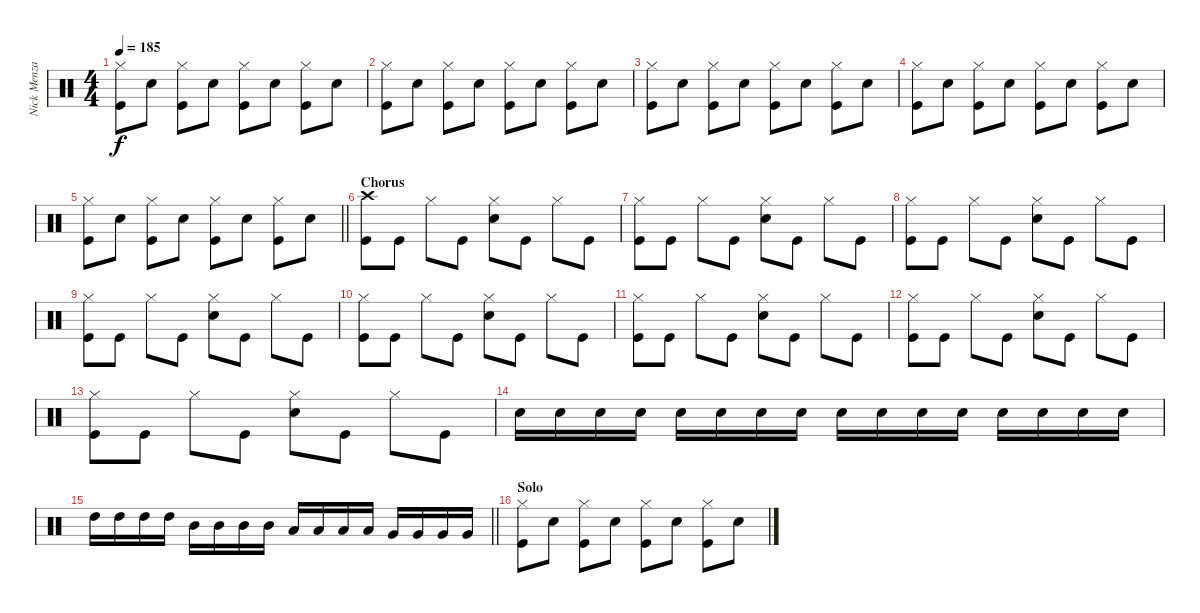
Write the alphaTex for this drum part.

\track ("Nick Menza" "Nick Menza") {instrument percussion}
\staff {score}
\articulation defaults
\ts (4 4)
\tempo 185
\clef neutral
\ks c
("Hi-Hat (closed)" "Kick (hit)").8{dy f} "Snare (hit) 2".8 ("Hi-Hat (closed)" "Kick (hit)").8 "Snare (hit) 2".8 ("Hi-Hat (closed)" "Kick (hit)").8 "Snare (hit) 2".8 ("Hi-Hat (closed)" "Kick (hit)").8 "Snare (hit) 2".8 |
("Hi-Hat (closed)" "Kick (hit)").8 "Snare (hit) 2".8 ("Hi-Hat (closed)" "Kick (hit)").8 "Snare (hit) 2".8 ("Hi-Hat (closed)" "Kick (hit)").8 "Snare (hit) 2".8 ("Hi-Hat (closed)" "Kick (hit)").8 "Snare (hit) 2".8 |
("Hi-Hat (closed)" "Kick (hit)").8 "Snare (hit) 2".8 ("Hi-Hat (closed)" "Kick (hit)").8 "Snare (hit) 2".8 ("Hi-Hat (closed)" "Kick (hit)").8 "Snare (hit) 2".8 ("Hi-Hat (closed)" "Kick (hit)").8 "Snare (hit) 2".8 |
("Hi-Hat (closed)" "Kick (hit)").8 "Snare (hit) 2".8 ("Hi-Hat (closed)" "Kick (hit)").8 "Snare (hit) 2".8 ("Hi-Hat (closed)" "Kick (hit)").8 "Snare (hit) 2".8 ("Hi-Hat (closed)" "Kick (hit)").8 "Snare (hit) 2".8 |
\barLineRight lightlight
("Hi-Hat (closed)" "Kick (hit)").8 "Snare (hit) 2".8 ("Hi-Hat (closed)" "Kick (hit)").8 "Snare (hit) 2".8 ("Hi-Hat (closed)" "Kick (hit)").8 "Snare (hit) 2".8 ("Hi-Hat (closed)" "Kick (hit)").8 "Snare (hit) 2".8 |
\section ("" "Chorus")
("Crash high (hit)" "Kick (hit)").8 "Kick (hit)".8 "Hi-Hat (closed)".8 "Kick (hit)".8 ("Hi-Hat (closed)" "Snare (hit) 2").8 "Kick (hit)".8 "Hi-Hat (closed)".8 "Kick (hit)".8 |
("Hi-Hat (closed)" "Kick (hit)").8 "Kick (hit)".8 "Hi-Hat (closed)".8 "Kick (hit)".8 ("Hi-Hat (closed)" "Snare (hit) 2").8 "Kick (hit)".8 "Hi-Hat (closed)".8 "Kick (hit)".8 |
("Hi-Hat (closed)" "Kick (hit)").8 "Kick (hit)".8 "Hi-Hat (closed)".8 "Kick (hit)".8 ("Hi-Hat (closed)" "Snare (hit) 2").8 "Kick (hit)".8 "Hi-Hat (closed)".8 "Kick (hit)".8 |
("Hi-Hat (closed)" "Kick (hit)").8 "Kick (hit)".8 "Hi-Hat (closed)".8 "Kick (hit)".8 ("Hi-Hat (closed)" "Snare (hit) 2").8 "Kick (hit)".8 "Hi-Hat (closed)".8 "Kick (hit)".8 |
("Hi-Hat (closed)" "Kick (hit)").8 "Kick (hit)".8 "Hi-Hat (closed)".8 "Kick (hit)".8 ("Hi-Hat (closed)" "Snare (hit) 2").8 "Kick (hit)".8 "Hi-Hat (closed)".8 "Kick (hit)".8 |
("Hi-Hat (closed)" "Kick (hit)").8 "Kick (hit)".8 "Hi-Hat (closed)".8 "Kick (hit)".8 ("Hi-Hat (closed)" "Snare (hit) 2").8 "Kick (hit)".8 "Hi-Hat (closed)".8 "Kick (hit)".8 |
("Hi-Hat (closed)" "Kick (hit)").8 "Kick (hit)".8 "Hi-Hat (closed)".8 "Kick (hit)".8 ("Hi-Hat (closed)" "Snare (hit) 2").8 "Kick (hit)".8 "Hi-Hat (closed)".8 "Kick (hit)".8 |
("Hi-Hat (closed)" "Kick (hit)").8 "Kick (hit)".8 "Hi-Hat (closed)".8 "Kick (hit)".8 ("Hi-Hat (closed)" "Snare (hit) 2").8 "Kick (hit)".8 "Hi-Hat (closed)".8 "Kick (hit)".8 |
"Snare (hit) 2".16 "Snare (hit) 2".16 "Snare (hit) 2".16 "Snare (hit) 2".16 "Snare (hit) 2".16 "Snare (hit) 2".16 "Snare (hit) 2".16 "Snare (hit) 2".16 "Snare (hit) 2".16 "Snare (hit) 2".16 "Snare (hit) 2".16 "Snare (hit) 2".16 "Snare (hit) 2".16 "Snare (hit) 2".16 "Snare (hit) 2".16 "Snare (hit) 2".16 |
\barLineRight lightlight "High Tom (hit)".16 "High Tom (hit)".16 "High Tom (hit)".16 "High Tom (hit)".16 "Mid Tom (hit)".16 "Mid Tom (hit)".16 "Mid Tom (hit)".16 "Mid Tom (hit)".16 "Low Tom (hit)".16 "Low Tom (hit)".16 "Low Tom (hit)".16 "Low Tom (hit)".16 "Very Low Tom (hit)".16 "Very Low Tom (hit)".16 "Very Low Tom (hit)".16 "Very Low Tom (hit)".16
|
\section ("" "Solo")
("Hi-Hat (closed)" "Kick (hit)").8 "Snare (hit) 2".8 ("Hi-Hat (closed)" "Kick (hit)").8 "Snare (hit) 2".8 ("Hi-Hat (closed)" "Kick (hit)").8 "Snare (hit) 2".8 ("Hi-Hat (closed)" "Kick (hit)").8 "Snare (hit) 2".8
